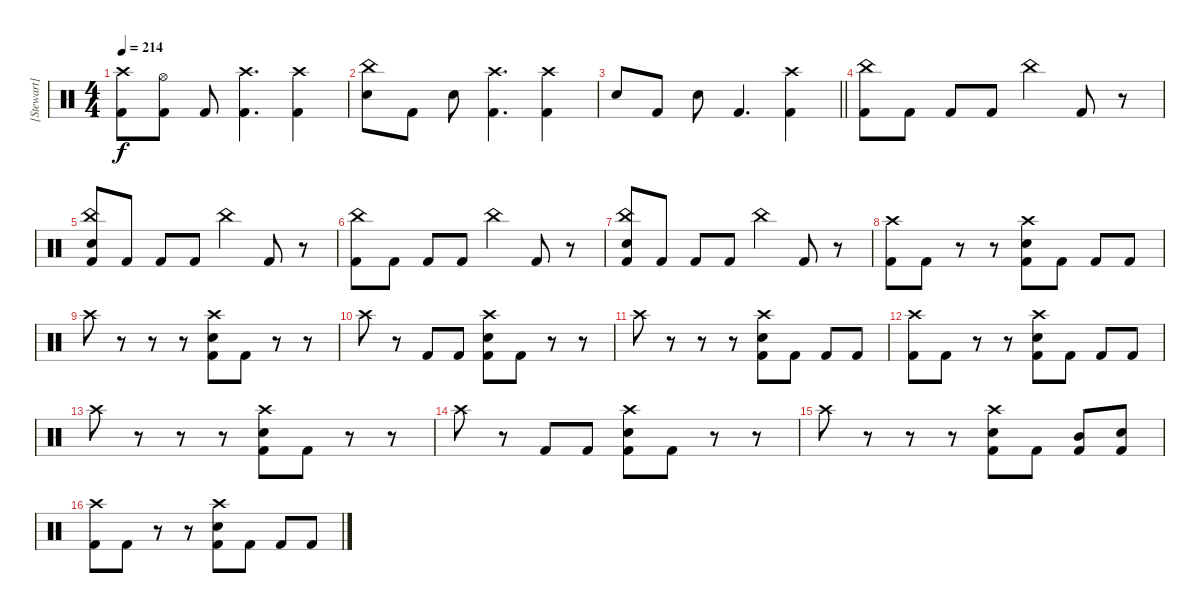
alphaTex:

\track ("[Stewart]" "[Stewart]") {instrument percussion}
\staff {score}
\articulation defaults
\ts (4 4)
\tempo 214
\clef neutral
\ks c
("Crash high (hit)" "Kick (hit) 2").8{dy f} ("Hi-Hat (open)" "Kick (hit) 2").8 "Kick (hit) 2".8 ("Crash high (hit)" "Kick (hit) 2").4{d} ("Crash high (hit)" "Kick (hit) 2").4 |
("China (hit)" "Electric Snare (hit)").8 "Kick (hit) 2".8 "Electric Snare (hit)".8 ("Crash high (hit)" "Kick (hit) 2").4{d} ("Crash high (hit)" "Kick (hit) 2").4 |
\barLineRight lightlight "Electric Snare (hit)".8 "Kick (hit) 2".8 "Electric Snare (hit)".8 "Kick (hit) 2".4{d}
("Crash high (hit)" "Kick (hit) 2").4 |
("China (hit)" "Kick (hit) 2").8 "Kick (hit) 2".8 "Kick (hit) 2".8 "Kick (hit) 2".8 "China (hit)".4 "Kick (hit) 2".8 r.8 |
("China (hit)" "Electric Snare (hit)" "Kick (hit) 2").8 "Kick (hit) 2".8 "Kick (hit) 2".8 "Kick (hit) 2".8 "China (hit)".4 "Kick (hit) 2".8 r.8 |
("China (hit)" "Kick (hit) 2").8 "Kick (hit) 2".8 "Kick (hit) 2".8 "Kick (hit) 2".8 "China (hit)".4 "Kick (hit) 2".8 r.8 |
("China (hit)" "Electric Snare (hit)" "Kick (hit) 2").8 "Kick (hit) 2".8 "Kick (hit) 2".8 "Kick (hit) 2".8 "China (hit)".4 "Kick (hit) 2".8 r.8 |
("Crash high (hit)" "Kick (hit) 2").8 "Kick (hit) 2".8 r.8 r.8 ("Crash high (hit)" "Electric Snare (hit)" "Kick (hit) 2").8 "Kick (hit) 2".8 "Kick (hit) 2".8 "Kick (hit) 2".8 |
"Crash high (hit)".8 r.8 r.8 r.8 ("Crash high (hit)" "Electric Snare (hit)" "Kick (hit) 2").8 "Kick (hit) 2".8 r.8 r.8 |
"Crash high (hit)".8 r.8 "Kick (hit) 2".8 "Kick (hit) 2".8 ("Crash high (hit)" "Electric Snare (hit)" "Kick (hit) 2").8 "Kick (hit) 2".8 r.8 r.8 |
"Crash high (hit)".8 r.8 r.8 r.8 ("Crash high (hit)" "Electric Snare (hit)" "Kick (hit) 2").8 "Kick (hit) 2".8 "Kick (hit) 2".8 "Kick (hit) 2".8 |
("Crash high (hit)" "Kick (hit) 2").8 "Kick (hit) 2".8 r.8 r.8 ("Crash high (hit)" "Electric Snare (hit)" "Kick (hit) 2").8 "Kick (hit) 2".8 "Kick (hit) 2".8 "Kick (hit) 2".8 |
"Crash high (hit)".8 r.8 r.8 r.8 ("Crash high (hit)" "Electric Snare (hit)" "Kick (hit) 2").8 "Kick (hit) 2".8 r.8 r.8 |
"Crash high (hit)".8 r.8 "Kick (hit) 2".8 "Kick (hit) 2".8 ("Crash high (hit)" "Electric Snare (hit)" "Kick (hit) 2").8 "Kick (hit) 2".8 r.8 r.8 |
"Crash high (hit)".8 r.8 r.8 r.8 ("Crash high (hit)" "Electric Snare (hit)" "Kick (hit) 2").8 "Kick (hit) 2".8 ("Mid Tom (hit)" "Kick (hit) 2").8 ("Electric Snare (hit)" "Kick (hit) 2").8 |
("Crash high (hit)" "Kick (hit) 2").8 "Kick (hit) 2".8 r.8 r.8 ("Crash high (hit)" "Electric Snare (hit)" "Kick (hit) 2").8 "Kick (hit) 2".8 "Kick (hit) 2".8 "Kick (hit) 2".8
